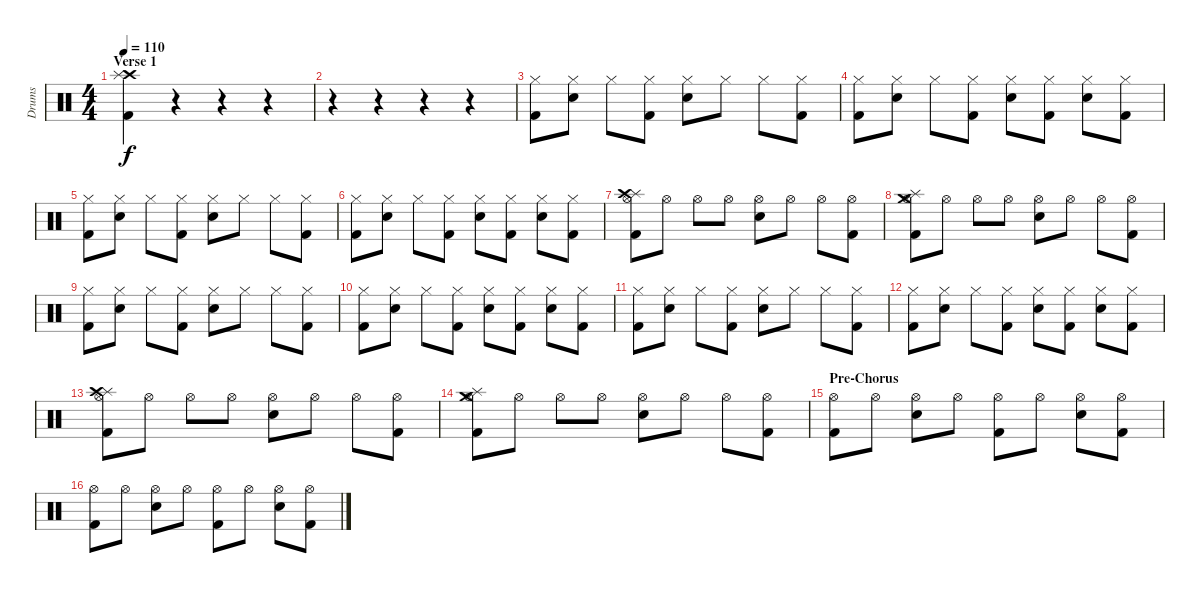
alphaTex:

\track ("Drums" "Drums") {instrument percussion}
\staff {score}
\articulation defaults
\ts (4 4)
\section ("" "Verse 1")
\tempo 110
\clef neutral
\ks c
("Crash high (hit)" "Splash (hit)" "Kick (hit) 2").4{dy f} r.4 r.4 r.4 |
r.4 r.4 r.4 r.4 |
("Hi-Hat (closed)" "Kick (hit) 2").8 ("Hi-Hat (closed)" "Snare (hit) 2").8 "Hi-Hat (closed)".8 ("Hi-Hat (closed)" "Kick (hit) 2").8 ("Hi-Hat (closed)" "Snare (hit) 2").8 "Hi-Hat (closed)".8 "Hi-Hat (closed)".8 ("Hi-Hat (closed)" "Kick (hit) 2").8 |
("Hi-Hat (closed)" "Kick (hit) 2").8 ("Hi-Hat (closed)" "Snare (hit) 2").8 "Hi-Hat (closed)".8 ("Hi-Hat (closed)" "Kick (hit) 2").8 ("Hi-Hat (closed)" "Snare (hit) 2").8 ("Hi-Hat (closed)" "Kick (hit) 2").8 ("Hi-Hat (closed)" "Snare (hit) 2").8 ("Hi-Hat (closed)" "Kick (hit) 2").8 |
("Hi-Hat (closed)" "Kick (hit) 2").8 ("Hi-Hat (closed)" "Snare (hit) 2").8 "Hi-Hat (closed)".8 ("Hi-Hat (closed)" "Kick (hit) 2").8 ("Hi-Hat (closed)" "Snare (hit) 2").8 "Hi-Hat (closed)".8 "Hi-Hat (closed)".8 ("Hi-Hat (closed)" "Kick (hit) 2").8 |
("Hi-Hat (closed)" "Kick (hit) 2").8 ("Hi-Hat (closed)" "Snare (hit) 2").8 "Hi-Hat (closed)".8 ("Hi-Hat (closed)" "Kick (hit) 2").8 ("Hi-Hat (closed)" "Snare (hit) 2").8 ("Hi-Hat (closed)" "Kick (hit) 2").8 ("Hi-Hat (closed)" "Snare (hit) 2").8 ("Hi-Hat (closed)" "Kick (hit) 2").8 |
("Hi-Hat (open)" "Splash (hit)" "Crash high (hit)" "Kick (hit) 2").8 "Hi-Hat (open)".8 "Hi-Hat (open)".8 "Hi-Hat (open)".8 ("Hi-Hat (open)" "Snare (hit) 2").8 "Hi-Hat (open)".8 "Hi-Hat (open)".8 ("Hi-Hat (open)" "Kick (hit) 2").8 |
("Hi-Hat (open)" "Splash (hit)" "Crash medium (hit)" "Kick (hit) 2").8 "Hi-Hat (open)".8 "Hi-Hat (open)".8 "Hi-Hat (open)".8 ("Hi-Hat (open)" "Snare (hit) 2").8 "Hi-Hat (open)".8 "Hi-Hat (open)".8 ("Hi-Hat (open)" "Kick (hit) 2").8 |
("Hi-Hat (closed)" "Kick (hit) 2").8 ("Hi-Hat (closed)" "Snare (hit) 2").8 "Hi-Hat (closed)".8 ("Hi-Hat (closed)" "Kick (hit) 2").8 ("Hi-Hat (closed)" "Snare (hit) 2").8 "Hi-Hat (closed)".8 "Hi-Hat (closed)".8 ("Hi-Hat (closed)" "Kick (hit) 2").8 |
("Hi-Hat (closed)" "Kick (hit) 2").8 ("Hi-Hat (closed)" "Snare (hit) 2").8 "Hi-Hat (closed)".8 ("Hi-Hat (closed)" "Kick (hit) 2").8 ("Hi-Hat (closed)" "Snare (hit) 2").8 ("Hi-Hat (closed)" "Kick (hit) 2").8 ("Hi-Hat (closed)" "Snare (hit) 2").8 ("Hi-Hat (closed)" "Kick (hit) 2").8 |
("Hi-Hat (closed)" "Kick (hit) 2").8 ("Hi-Hat (closed)" "Snare (hit) 2").8 "Hi-Hat (closed)".8 ("Hi-Hat (closed)" "Kick (hit) 2").8 ("Hi-Hat (closed)" "Snare (hit) 2").8 "Hi-Hat (closed)".8 "Hi-Hat (closed)".8 ("Hi-Hat (closed)" "Kick (hit) 2").8 |
("Hi-Hat (closed)" "Kick (hit) 2").8 ("Hi-Hat (closed)" "Snare (hit) 2").8 "Hi-Hat (closed)".8 ("Hi-Hat (closed)" "Kick (hit) 2").8 ("Hi-Hat (closed)" "Snare (hit) 2").8 ("Hi-Hat (closed)" "Kick (hit) 2").8 ("Hi-Hat (closed)" "Snare (hit) 2").8 ("Hi-Hat (closed)" "Kick (hit) 2").8 |
("Hi-Hat (open)" "Splash (hit)" "Crash high (hit)" "Kick (hit) 2").8 "Hi-Hat (open)".8 "Hi-Hat (open)".8 "Hi-Hat (open)".8 ("Hi-Hat (open)" "Snare (hit) 2").8 "Hi-Hat (open)".8 "Hi-Hat (open)".8 ("Hi-Hat (open)" "Kick (hit) 2").8 |
("Hi-Hat (open)" "Splash (hit)" "Crash medium (hit)" "Kick (hit) 2").8 "Hi-Hat (open)".8 "Hi-Hat (open)".8 "Hi-Hat (open)".8 ("Hi-Hat (open)" "Snare (hit) 2").8 "Hi-Hat (open)".8 "Hi-Hat (open)".8 ("Hi-Hat (open)" "Kick (hit) 2").8 |
\section ("" "Pre-Chorus")
("Hi-Hat (open)" "Kick (hit) 2").8 "Hi-Hat (open)".8 ("Hi-Hat (open)" "Snare (hit) 2").8 "Hi-Hat (open)".8 ("Hi-Hat (open)" "Kick (hit) 2").8 "Hi-Hat (open)".8 ("Hi-Hat (open)" "Snare (hit) 2").8 ("Hi-Hat (open)" "Kick (hit) 2").8 |
("Hi-Hat (open)" "Kick (hit) 2").8 "Hi-Hat (open)".8 ("Hi-Hat (open)" "Snare (hit) 2").8 "Hi-Hat (open)".8 ("Hi-Hat (open)" "Kick (hit) 2").8 "Hi-Hat (open)".8 ("Hi-Hat (open)" "Snare (hit) 2").8 ("Hi-Hat (open)" "Kick (hit) 2").8
